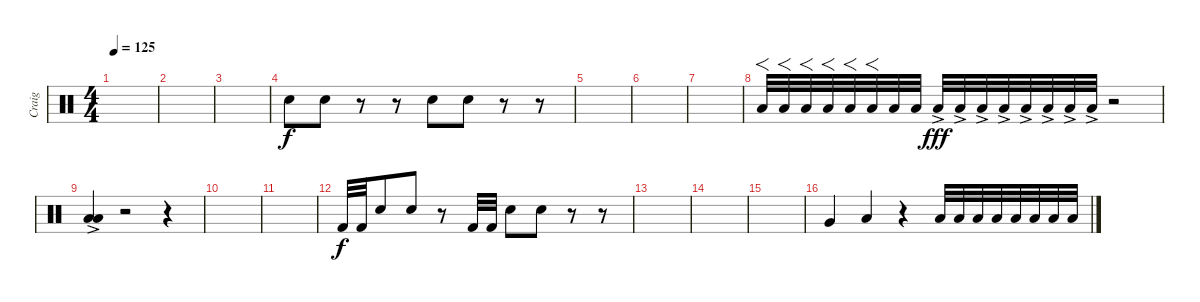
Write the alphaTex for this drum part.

\track ("Craig" "Craig") {instrument percussion}
\staff {score}
\articulation defaults
\ts (4 4)
\tempo 125
\clef neutral
\ks c
|
|
|
"Snare (hit) 2".8 "Snare (hit) 2".8 r.8 r.8 "Snare (hit) 2".8 "Snare (hit) 2".8 r.8 r.8 |
|
|
|
"Low Floor Tom (hit)".32{f} "Low Floor Tom (hit)".32{f} "Low Floor Tom (hit)".32{f} "Low Floor Tom (hit)".32{f} "Low Floor Tom (hit)".32{f} "Low Floor Tom (hit)".32{f} "Low Floor Tom (hit)".32 "Low Floor Tom (hit)".32 "Low Floor Tom (hit)"{ac}.32{dy fff} "Low Floor Tom (hit)"{ac}.32 "Low Floor Tom (hit)"{ac}.32 "Low Floor Tom (hit)"{ac}.32 "Low Floor Tom (hit)"{ac}.32 "Low Floor Tom (hit)"{ac}.32 "Low Floor Tom (hit)"{ac}.32 "Low Floor Tom (hit)"{ac}.32 r.2 |
("Low Floor Tom (hit)"{ac} "Low Floor Tom (hit)"{ac}).4 r.2 r.4 |
|
|
"Kick (hit) 2".32{dy f} "Kick (hit) 2".32 "Snare (hit) 2".8 "Snare (hit) 2".8 r.8 "Kick (hit) 2".32 "Kick (hit) 2".32 "Snare (hit) 2".8 "Snare (hit) 2".8 r.8 r.8 |
|
|
|
"Very Low Tom (hit)".4 "Low Floor Tom (hit)".4 r.4 "Low Floor Tom (hit)".32 "Low Floor Tom (hit)".32 "Low Floor Tom (hit)".32 "Low Floor Tom (hit)".32 "Low Floor Tom (hit)".32 "Low Floor Tom (hit)".32 "Low Floor Tom (hit)".32 "Low Floor Tom (hit)".32
